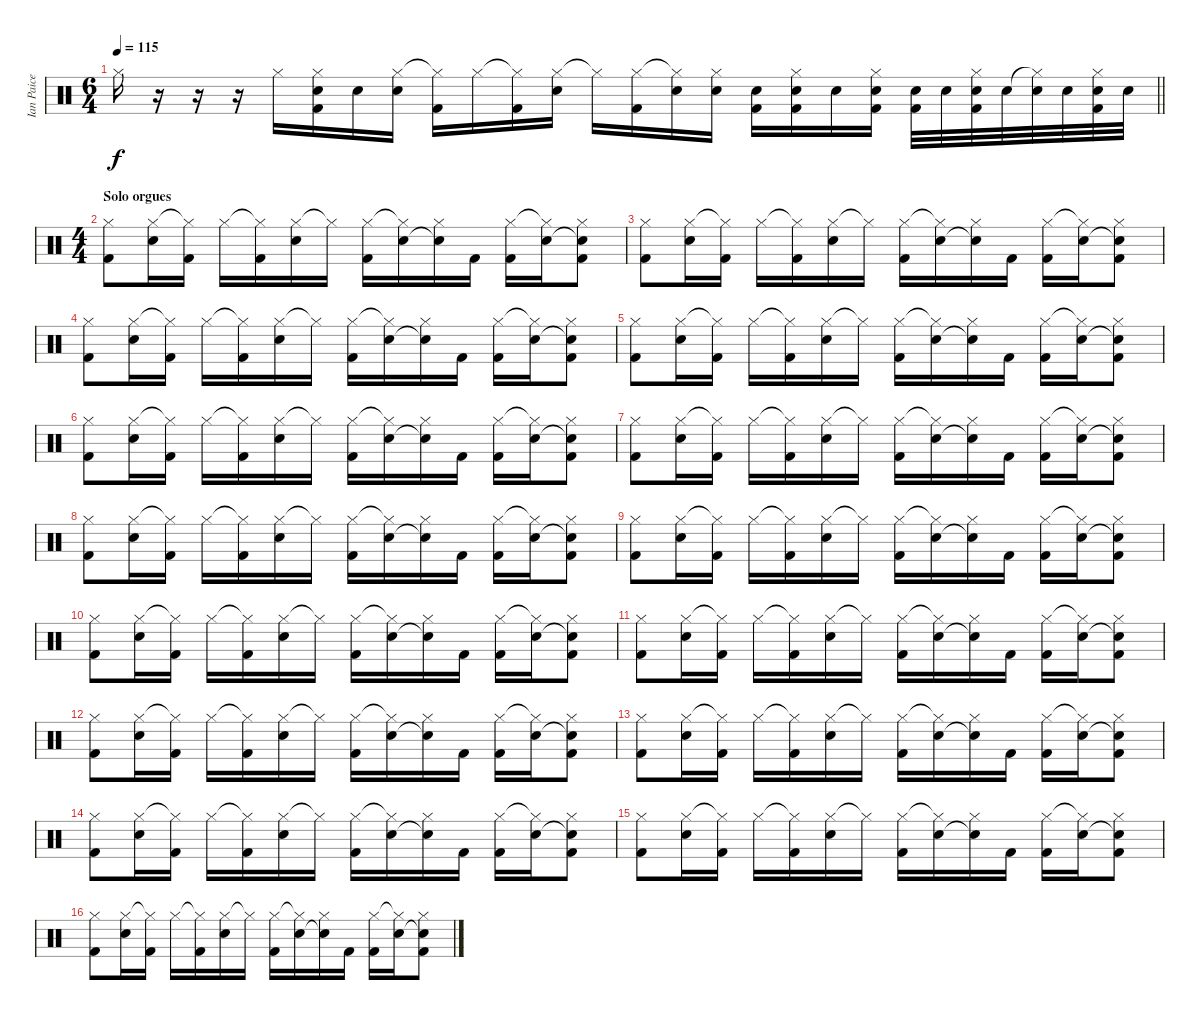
\track ("Ian Paice" "Ian Paice") {instrument percussion}
\staff {score}
\articulation defaults
\ts (6 4)
\tempo 115
\clef neutral
\barLineRight lightlight
\ks c "Hi-Hat (closed)".16{dy f}
r.16 r.16 r.16 "Hi-Hat (closed)".16 ("Hi-Hat (closed)" "Snare (hit) 2" "Kick (hit) 2").16 "Snare (hit) 2".16 ("Hi-Hat (closed)" "Snare (hit) 2").16 ("Hi-Hat (closed)"{t} "Kick (hit) 2").16 "Hi-Hat (closed)".16 ("Hi-Hat (closed)"{t} "Kick (hit) 2").16 ("Hi-Hat (closed)" "Snare (hit) 2").16 "Hi-Hat (closed)"{t}.16 ("Hi-Hat (closed)" "Kick (hit) 2").16 ("Hi-Hat (closed)"{t} "Snare (hit) 2").16 ("Hi-Hat (closed)" "Snare (hit) 2").16 ("Snare (hit) 2" "Kick (hit) 2").16 ("Hi-Hat (closed)" "Snare (hit) 2" "Kick (hit) 2").16 "Snare (hit) 2".16 ("Hi-Hat (closed)" "Snare (hit) 2" "Kick (hit) 2").16 ("Snare (hit) 2" "Kick (hit) 2").32 "Snare (hit) 2".32 ("Hi-Hat (closed)" "Snare (hit) 2" "Kick (hit) 2").32 "Snare (hit) 2".32 ("Hi-Hat (closed)"{t} "Snare (hit) 2").32 "Snare (hit) 2".32 ("Hi-Hat (closed)" "Snare (hit) 2" "Kick (hit) 2").32 "Snare (hit) 2".32 |
\ts (4 4)
\section ("" "Solo orgues")
("Hi-Hat (closed)" "Kick (hit) 2").8 ("Hi-Hat (closed)" "Snare (hit) 2").16 ("Hi-Hat (closed)"{t} "Kick (hit) 2").16 "Hi-Hat (closed)".16 ("Hi-Hat (closed)"{t} "Kick (hit) 2").16 ("Hi-Hat (closed)" "Snare (hit) 2").16 "Hi-Hat (closed)"{t}.16 ("Hi-Hat (closed)" "Kick (hit) 2").16 ("Hi-Hat (closed)"{t} "Snare (hit) 2").16 ("Hi-Hat (closed)" "Snare (hit) 2"{t}).16 "Kick (hit) 2".16 ("Hi-Hat (closed)" "Kick (hit) 2").16 ("Hi-Hat (closed)"{t} "Snare (hit) 2").16 ("Hi-Hat (closed)" "Snare (hit) 2"{t} "Kick (hit) 2").8 |
("Hi-Hat (closed)" "Kick (hit) 2").8 ("Hi-Hat (closed)" "Snare (hit) 2").16 ("Hi-Hat (closed)"{t} "Kick (hit) 2").16 "Hi-Hat (closed)".16 ("Hi-Hat (closed)"{t} "Kick (hit) 2").16 ("Hi-Hat (closed)" "Snare (hit) 2").16 "Hi-Hat (closed)"{t}.16 ("Hi-Hat (closed)" "Kick (hit) 2").16 ("Hi-Hat (closed)"{t} "Snare (hit) 2").16 ("Hi-Hat (closed)" "Snare (hit) 2"{t}).16 "Kick (hit) 2".16 ("Hi-Hat (closed)" "Kick (hit) 2").16 ("Hi-Hat (closed)"{t} "Snare (hit) 2").16 ("Hi-Hat (closed)" "Snare (hit) 2"{t} "Kick (hit) 2").8 |
("Hi-Hat (closed)" "Kick (hit) 2").8 ("Hi-Hat (closed)" "Snare (hit) 2").16 ("Hi-Hat (closed)"{t} "Kick (hit) 2").16 "Hi-Hat (closed)".16 ("Hi-Hat (closed)"{t} "Kick (hit) 2").16 ("Hi-Hat (closed)" "Snare (hit) 2").16 "Hi-Hat (closed)"{t}.16 ("Hi-Hat (closed)" "Kick (hit) 2").16 ("Hi-Hat (closed)"{t} "Snare (hit) 2").16 ("Hi-Hat (closed)" "Snare (hit) 2"{t}).16 "Kick (hit) 2".16 ("Hi-Hat (closed)" "Kick (hit) 2").16 ("Hi-Hat (closed)"{t} "Snare (hit) 2").16 ("Hi-Hat (closed)" "Snare (hit) 2"{t} "Kick (hit) 2").8 |
("Hi-Hat (closed)" "Kick (hit) 2").8 ("Hi-Hat (closed)" "Snare (hit) 2").16 ("Hi-Hat (closed)"{t} "Kick (hit) 2").16 "Hi-Hat (closed)".16 ("Hi-Hat (closed)"{t} "Kick (hit) 2").16 ("Hi-Hat (closed)" "Snare (hit) 2").16 "Hi-Hat (closed)"{t}.16 ("Hi-Hat (closed)" "Kick (hit) 2").16 ("Hi-Hat (closed)"{t} "Snare (hit) 2").16 ("Hi-Hat (closed)" "Snare (hit) 2"{t}).16 "Kick (hit) 2".16 ("Hi-Hat (closed)" "Kick (hit) 2").16 ("Hi-Hat (closed)"{t} "Snare (hit) 2").16 ("Hi-Hat (closed)" "Snare (hit) 2"{t} "Kick (hit) 2").8 |
("Hi-Hat (closed)" "Kick (hit) 2").8 ("Hi-Hat (closed)" "Snare (hit) 2").16 ("Hi-Hat (closed)"{t} "Kick (hit) 2").16 "Hi-Hat (closed)".16 ("Hi-Hat (closed)"{t} "Kick (hit) 2").16 ("Hi-Hat (closed)" "Snare (hit) 2").16 "Hi-Hat (closed)"{t}.16 ("Hi-Hat (closed)" "Kick (hit) 2").16 ("Hi-Hat (closed)"{t} "Snare (hit) 2").16 ("Hi-Hat (closed)" "Snare (hit) 2"{t}).16 "Kick (hit) 2".16 ("Hi-Hat (closed)" "Kick (hit) 2").16 ("Hi-Hat (closed)"{t} "Snare (hit) 2").16 ("Hi-Hat (closed)" "Snare (hit) 2"{t} "Kick (hit) 2").8 |
("Hi-Hat (closed)" "Kick (hit) 2").8 ("Hi-Hat (closed)" "Snare (hit) 2").16 ("Hi-Hat (closed)"{t} "Kick (hit) 2").16 "Hi-Hat (closed)".16 ("Hi-Hat (closed)"{t} "Kick (hit) 2").16 ("Hi-Hat (closed)" "Snare (hit) 2").16 "Hi-Hat (closed)"{t}.16 ("Hi-Hat (closed)" "Kick (hit) 2").16 ("Hi-Hat (closed)"{t} "Snare (hit) 2").16 ("Hi-Hat (closed)" "Snare (hit) 2"{t}).16 "Kick (hit) 2".16 ("Hi-Hat (closed)" "Kick (hit) 2").16 ("Hi-Hat (closed)"{t} "Snare (hit) 2").16 ("Hi-Hat (closed)" "Snare (hit) 2"{t} "Kick (hit) 2").8 |
("Hi-Hat (closed)" "Kick (hit) 2").8 ("Hi-Hat (closed)" "Snare (hit) 2").16 ("Hi-Hat (closed)"{t} "Kick (hit) 2").16 "Hi-Hat (closed)".16 ("Hi-Hat (closed)"{t} "Kick (hit) 2").16 ("Hi-Hat (closed)" "Snare (hit) 2").16 "Hi-Hat (closed)"{t}.16 ("Hi-Hat (closed)" "Kick (hit) 2").16 ("Hi-Hat (closed)"{t} "Snare (hit) 2").16 ("Hi-Hat (closed)" "Snare (hit) 2"{t}).16 "Kick (hit) 2".16 ("Hi-Hat (closed)" "Kick (hit) 2").16 ("Hi-Hat (closed)"{t} "Snare (hit) 2").16 ("Hi-Hat (closed)" "Snare (hit) 2"{t} "Kick (hit) 2").8 |
("Hi-Hat (closed)" "Kick (hit) 2").8 ("Hi-Hat (closed)" "Snare (hit) 2").16 ("Hi-Hat (closed)"{t} "Kick (hit) 2").16 "Hi-Hat (closed)".16 ("Hi-Hat (closed)"{t} "Kick (hit) 2").16 ("Hi-Hat (closed)" "Snare (hit) 2").16 "Hi-Hat (closed)"{t}.16 ("Hi-Hat (closed)" "Kick (hit) 2").16 ("Hi-Hat (closed)"{t} "Snare (hit) 2").16 ("Hi-Hat (closed)" "Snare (hit) 2"{t}).16 "Kick (hit) 2".16 ("Hi-Hat (closed)" "Kick (hit) 2").16 ("Hi-Hat (closed)"{t} "Snare (hit) 2").16 ("Hi-Hat (closed)" "Snare (hit) 2"{t} "Kick (hit) 2").8 |
("Hi-Hat (closed)" "Kick (hit) 2").8 ("Hi-Hat (closed)" "Snare (hit) 2").16 ("Hi-Hat (closed)"{t} "Kick (hit) 2").16 "Hi-Hat (closed)".16 ("Hi-Hat (closed)"{t} "Kick (hit) 2").16 ("Hi-Hat (closed)" "Snare (hit) 2").16 "Hi-Hat (closed)"{t}.16 ("Hi-Hat (closed)" "Kick (hit) 2").16 ("Hi-Hat (closed)"{t} "Snare (hit) 2").16 ("Hi-Hat (closed)" "Snare (hit) 2"{t}).16 "Kick (hit) 2".16 ("Hi-Hat (closed)" "Kick (hit) 2").16 ("Hi-Hat (closed)"{t} "Snare (hit) 2").16 ("Hi-Hat (closed)" "Snare (hit) 2"{t} "Kick (hit) 2").8 |
("Hi-Hat (closed)" "Kick (hit) 2").8 ("Hi-Hat (closed)" "Snare (hit) 2").16 ("Hi-Hat (closed)"{t} "Kick (hit) 2").16 "Hi-Hat (closed)".16 ("Hi-Hat (closed)"{t} "Kick (hit) 2").16 ("Hi-Hat (closed)" "Snare (hit) 2").16 "Hi-Hat (closed)"{t}.16 ("Hi-Hat (closed)" "Kick (hit) 2").16 ("Hi-Hat (closed)"{t} "Snare (hit) 2").16 ("Hi-Hat (closed)" "Snare (hit) 2"{t}).16 "Kick (hit) 2".16 ("Hi-Hat (closed)" "Kick (hit) 2").16 ("Hi-Hat (closed)"{t} "Snare (hit) 2").16 ("Hi-Hat (closed)" "Snare (hit) 2"{t} "Kick (hit) 2").8 |
("Hi-Hat (closed)" "Kick (hit) 2").8 ("Hi-Hat (closed)" "Snare (hit) 2").16 ("Hi-Hat (closed)"{t} "Kick (hit) 2").16 "Hi-Hat (closed)".16 ("Hi-Hat (closed)"{t} "Kick (hit) 2").16 ("Hi-Hat (closed)" "Snare (hit) 2").16 "Hi-Hat (closed)"{t}.16 ("Hi-Hat (closed)" "Kick (hit) 2").16 ("Hi-Hat (closed)"{t} "Snare (hit) 2").16 ("Hi-Hat (closed)" "Snare (hit) 2"{t}).16 "Kick (hit) 2".16 ("Hi-Hat (closed)" "Kick (hit) 2").16 ("Hi-Hat (closed)"{t} "Snare (hit) 2").16 ("Hi-Hat (closed)" "Snare (hit) 2"{t} "Kick (hit) 2").8 |
("Hi-Hat (closed)" "Kick (hit) 2").8 ("Hi-Hat (closed)" "Snare (hit) 2").16 ("Hi-Hat (closed)"{t} "Kick (hit) 2").16 "Hi-Hat (closed)".16 ("Hi-Hat (closed)"{t} "Kick (hit) 2").16 ("Hi-Hat (closed)" "Snare (hit) 2").16 "Hi-Hat (closed)"{t}.16 ("Hi-Hat (closed)" "Kick (hit) 2").16 ("Hi-Hat (closed)"{t} "Snare (hit) 2").16 ("Hi-Hat (closed)" "Snare (hit) 2"{t}).16 "Kick (hit) 2".16 ("Hi-Hat (closed)" "Kick (hit) 2").16 ("Hi-Hat (closed)"{t} "Snare (hit) 2").16 ("Hi-Hat (closed)" "Snare (hit) 2"{t} "Kick (hit) 2").8 |
("Hi-Hat (closed)" "Kick (hit) 2").8 ("Hi-Hat (closed)" "Snare (hit) 2").16 ("Hi-Hat (closed)"{t} "Kick (hit) 2").16 "Hi-Hat (closed)".16 ("Hi-Hat (closed)"{t} "Kick (hit) 2").16 ("Hi-Hat (closed)" "Snare (hit) 2").16 "Hi-Hat (closed)"{t}.16 ("Hi-Hat (closed)" "Kick (hit) 2").16 ("Hi-Hat (closed)"{t} "Snare (hit) 2").16 ("Hi-Hat (closed)" "Snare (hit) 2"{t}).16 "Kick (hit) 2".16 ("Hi-Hat (closed)" "Kick (hit) 2").16 ("Hi-Hat (closed)"{t} "Snare (hit) 2").16 ("Hi-Hat (closed)" "Snare (hit) 2"{t} "Kick (hit) 2").8 |
("Hi-Hat (closed)" "Kick (hit) 2").8 ("Hi-Hat (closed)" "Snare (hit) 2").16 ("Hi-Hat (closed)"{t} "Kick (hit) 2").16 "Hi-Hat (closed)".16 ("Hi-Hat (closed)"{t} "Kick (hit) 2").16 ("Hi-Hat (closed)" "Snare (hit) 2").16 "Hi-Hat (closed)"{t}.16 ("Hi-Hat (closed)" "Kick (hit) 2").16 ("Hi-Hat (closed)"{t} "Snare (hit) 2").16 ("Hi-Hat (closed)" "Snare (hit) 2"{t}).16 "Kick (hit) 2".16 ("Hi-Hat (closed)" "Kick (hit) 2").16 ("Hi-Hat (closed)"{t} "Snare (hit) 2").16 ("Hi-Hat (closed)" "Snare (hit) 2"{t} "Kick (hit) 2").8 |
("Hi-Hat (closed)" "Kick (hit) 2").8 ("Hi-Hat (closed)" "Snare (hit) 2").16 ("Hi-Hat (closed)"{t} "Kick (hit) 2").16 "Hi-Hat (closed)".16 ("Hi-Hat (closed)"{t} "Kick (hit) 2").16 ("Hi-Hat (closed)" "Snare (hit) 2").16 "Hi-Hat (closed)"{t}.16 ("Hi-Hat (closed)" "Kick (hit) 2").16 ("Hi-Hat (closed)"{t} "Snare (hit) 2").16 ("Hi-Hat (closed)" "Snare (hit) 2"{t}).16 "Kick (hit) 2".16 ("Hi-Hat (closed)" "Kick (hit) 2").16 ("Hi-Hat (closed)"{t} "Snare (hit) 2").16 ("Hi-Hat (closed)" "Snare (hit) 2"{t} "Kick (hit) 2").8
